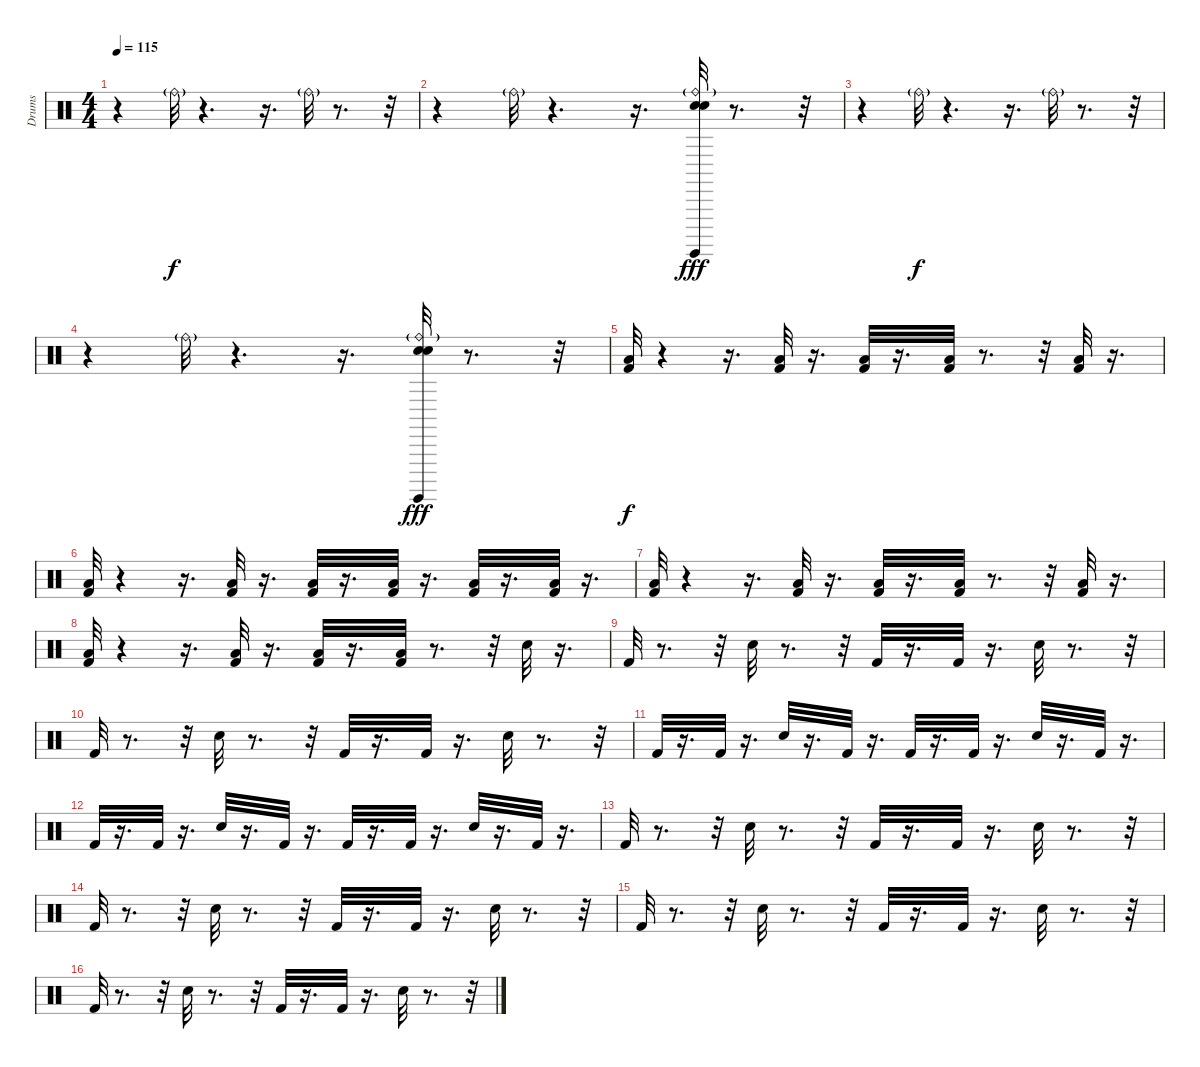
\track ("Drums" "Drums") {instrument percussion}
\staff {score}
\articulation defaults
\ts (4 4)
\tempo 115
\clef neutral
\ks c
r.4{dy fff} "Ride (bell)"{g}.32{dy f} r.4{d} r.16{d} "Ride (bell)"{g}.32 r.8{d} r.32 |
r.4 "Ride (bell)"{g}.32 r.4{d} r.16{d} ("Ride (bell)"{g} "Snare (hit) 2" "Electric Snare (hit)" "Surdo (hit)").32{dy fff} r.8{d} r.32 |
r.4 "Ride (bell)"{g}.32{dy f} r.4{d} r.16{d} "Ride (bell)"{g}.32 r.8{d} r.32 |
r.4 "Ride (bell)"{g}.32 r.4{d} r.16{d} ("Ride (bell)"{g} "Snare (hit) 2" "Electric Snare (hit)" "Surdo (hit)").32{dy fff} r.8{d} r.32 |
("Low Floor Tom (hit)" "Kick (hit) 2").32{dy f} r.4 r.16{d} ("Kick (hit) 2" "Low Floor Tom (hit)").32 r.16{d} ("Kick (hit) 2" "Low Floor Tom (hit)").32 r.16{d} ("Low Floor Tom (hit)" "Kick (hit) 2").32 r.8{d} r.32 ("Low Floor Tom (hit)" "Kick (hit) 2").32 r.16{d} |
("Low Floor Tom (hit)" "Kick (hit) 2").32 r.4 r.16{d} ("Kick (hit) 2" "Low Floor Tom (hit)").32 r.16{d} ("Kick (hit) 2" "Low Floor Tom (hit)").32 r.16{d} ("Low Floor Tom (hit)" "Kick (hit) 2").32 r.16{d} ("Kick (hit) 2" "Low Floor Tom (hit)").32 r.16{d} ("Low Floor Tom (hit)" "Kick (hit) 2").32 r.16{d} |
("Low Floor Tom (hit)" "Kick (hit) 2").32 r.4 r.16{d} ("Kick (hit) 2" "Low Floor Tom (hit)").32 r.16{d} ("Kick (hit) 2" "Low Floor Tom (hit)").32 r.16{d} ("Low Floor Tom (hit)" "Kick (hit) 2").32 r.8{d} r.32 ("Low Floor Tom (hit)" "Kick (hit) 2").32 r.16{d} |
("Low Floor Tom (hit)" "Kick (hit) 2").32 r.4 r.16{d} ("Kick (hit) 2" "Low Floor Tom (hit)").32 r.16{d} ("Kick (hit) 2" "Low Floor Tom (hit)").32 r.16{d} ("Low Floor Tom (hit)" "Kick (hit) 2").32 r.8{d} r.32 "Snare (hit) 2".32 r.16{d} |
"Kick (hit) 2".32 r.8{d} r.32 "Snare (hit) 2".32 r.8{d} r.32 "Kick (hit) 2".32 r.16{d} "Kick (hit) 2".32 r.16{d} "Snare (hit) 2".32 r.8{d} r.32 |
"Kick (hit) 2".32 r.8{d} r.32 "Snare (hit) 2".32 r.8{d} r.32 "Kick (hit) 2".32 r.16{d} "Kick (hit) 2".32 r.16{d} "Snare (hit) 2".32 r.8{d} r.32 |
"Kick (hit) 2".32 r.16{d} "Kick (hit) 2".32 r.16{d} "Snare (hit) 2".32 r.16{d} "Kick (hit) 2".32 r.16{d} "Kick (hit) 2".32 r.16{d} "Kick (hit) 2".32 r.16{d} "Snare (hit) 2".32 r.16{d} "Kick (hit) 2".32 r.16{d} |
"Kick (hit) 2".32 r.16{d} "Kick (hit) 2".32 r.16{d} "Snare (hit) 2".32 r.16{d} "Kick (hit) 2".32 r.16{d} "Kick (hit) 2".32 r.16{d} "Kick (hit) 2".32 r.16{d} "Snare (hit) 2".32 r.16{d} "Kick (hit) 2".32 r.16{d} |
"Kick (hit) 2".32 r.8{d} r.32 "Snare (hit) 2".32 r.8{d} r.32 "Kick (hit) 2".32 r.16{d} "Kick (hit) 2".32 r.16{d} "Snare (hit) 2".32 r.8{d} r.32 |
"Kick (hit) 2".32 r.8{d} r.32 "Snare (hit) 2".32 r.8{d} r.32 "Kick (hit) 2".32 r.16{d} "Kick (hit) 2".32 r.16{d} "Snare (hit) 2".32 r.8{d} r.32 |
"Kick (hit) 2".32 r.8{d} r.32 "Snare (hit) 2".32 r.8{d} r.32 "Kick (hit) 2".32 r.16{d} "Kick (hit) 2".32 r.16{d} "Snare (hit) 2".32 r.8{d} r.32 |
"Kick (hit) 2".32 r.8{d} r.32 "Snare (hit) 2".32 r.8{d} r.32 "Kick (hit) 2".32 r.16{d} "Kick (hit) 2".32 r.16{d} "Snare (hit) 2".32 r.8{d} r.32
